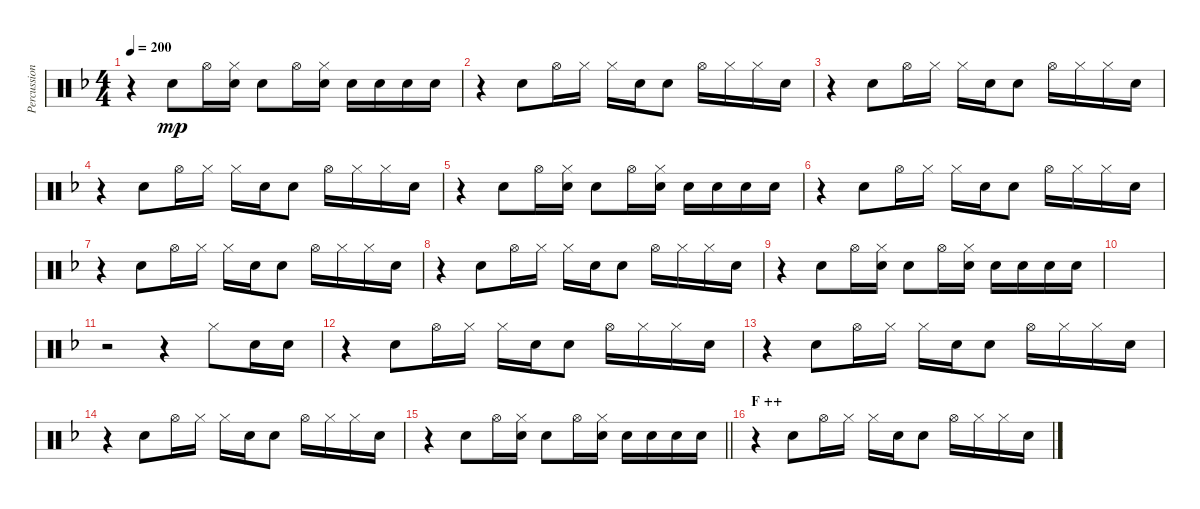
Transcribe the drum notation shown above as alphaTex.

\track ("Percussion (Tainaka Ritsu)" "Percussion") {instrument percussion}
\staff {score}
\articulation defaults
\ts (4 4)
\tempo 200
\clef neutral
\ks f
r.4{dy mp} "Electric Snare (hit)".8 "Hi-Hat (open)".16 ("Hi-Hat (closed)" "Electric Snare (hit)").16 "Electric Snare (hit)".8 "Hi-Hat (open)".16 ("Hi-Hat (closed)" "Electric Snare (hit)").16 "Electric Snare (hit)".16 "Electric Snare (hit)".16 "Electric Snare (hit)".16 "Electric Snare (hit)".16 |
r.4 "Electric Snare (hit)".8 "Hi-Hat (open)".16 "Hi-Hat (closed)".16 "Hi-Hat (closed)".16 "Electric Snare (hit)".16 "Electric Snare (hit)".8 "Hi-Hat (open)".16 "Hi-Hat (closed)".16 "Hi-Hat (closed)".16 "Electric Snare (hit)".16 |
r.4 "Electric Snare (hit)".8 "Hi-Hat (open)".16 "Hi-Hat (closed)".16 "Hi-Hat (closed)".16 "Electric Snare (hit)".16 "Electric Snare (hit)".8 "Hi-Hat (open)".16 "Hi-Hat (closed)".16 "Hi-Hat (closed)".16 "Electric Snare (hit)".16 |
r.4 "Electric Snare (hit)".8 "Hi-Hat (open)".16 "Hi-Hat (closed)".16 "Hi-Hat (closed)".16 "Electric Snare (hit)".16 "Electric Snare (hit)".8 "Hi-Hat (open)".16 "Hi-Hat (closed)".16 "Hi-Hat (closed)".16 "Electric Snare (hit)".16 |
r.4 "Electric Snare (hit)".8 "Hi-Hat (open)".16 ("Hi-Hat (closed)" "Electric Snare (hit)").16 "Electric Snare (hit)".8 "Hi-Hat (open)".16 ("Hi-Hat (closed)" "Electric Snare (hit)").16 "Electric Snare (hit)".16 "Electric Snare (hit)".16 "Electric Snare (hit)".16 "Electric Snare (hit)".16 |
r.4 "Electric Snare (hit)".8 "Hi-Hat (open)".16 "Hi-Hat (closed)".16 "Hi-Hat (closed)".16 "Electric Snare (hit)".16 "Electric Snare (hit)".8 "Hi-Hat (open)".16 "Hi-Hat (closed)".16 "Hi-Hat (closed)".16 "Electric Snare (hit)".16 |
r.4 "Electric Snare (hit)".8 "Hi-Hat (open)".16 "Hi-Hat (closed)".16 "Hi-Hat (closed)".16 "Electric Snare (hit)".16 "Electric Snare (hit)".8 "Hi-Hat (open)".16 "Hi-Hat (closed)".16 "Hi-Hat (closed)".16 "Electric Snare (hit)".16 |
r.4 "Electric Snare (hit)".8 "Hi-Hat (open)".16 "Hi-Hat (closed)".16 "Hi-Hat (closed)".16 "Electric Snare (hit)".16 "Electric Snare (hit)".8 "Hi-Hat (open)".16 "Hi-Hat (closed)".16 "Hi-Hat (closed)".16 "Electric Snare (hit)".16 |
r.4 "Electric Snare (hit)".8 "Hi-Hat (open)".16 ("Hi-Hat (closed)" "Electric Snare (hit)").16 "Electric Snare (hit)".8 "Hi-Hat (open)".16 ("Hi-Hat (closed)" "Electric Snare (hit)").16 "Electric Snare (hit)".16 "Electric Snare (hit)".16 "Electric Snare (hit)".16 "Electric Snare (hit)".16 |
|
r.2 r.4 "Hi-Hat (closed)".8 "Electric Snare (hit)".16 "Electric Snare (hit)".16 |
r.4 "Electric Snare (hit)".8 "Hi-Hat (open)".16 "Hi-Hat (closed)".16 "Hi-Hat (closed)".16 "Electric Snare (hit)".16 "Electric Snare (hit)".8 "Hi-Hat (open)".16 "Hi-Hat (closed)".16 "Hi-Hat (closed)".16 "Electric Snare (hit)".16 |
r.4 "Electric Snare (hit)".8 "Hi-Hat (open)".16 "Hi-Hat (closed)".16 "Hi-Hat (closed)".16 "Electric Snare (hit)".16 "Electric Snare (hit)".8 "Hi-Hat (open)".16 "Hi-Hat (closed)".16 "Hi-Hat (closed)".16 "Electric Snare (hit)".16 |
r.4 "Electric Snare (hit)".8 "Hi-Hat (open)".16 "Hi-Hat (closed)".16 "Hi-Hat (closed)".16 "Electric Snare (hit)".16 "Electric Snare (hit)".8 "Hi-Hat (open)".16 "Hi-Hat (closed)".16 "Hi-Hat (closed)".16 "Electric Snare (hit)".16 |
\barLineRight lightlight
r.4 "Electric Snare (hit)".8 "Hi-Hat (open)".16 ("Hi-Hat (closed)" "Electric Snare (hit)").16 "Electric Snare (hit)".8 "Hi-Hat (open)".16 ("Hi-Hat (closed)" "Electric Snare (hit)").16 "Electric Snare (hit)".16 "Electric Snare (hit)".16 "Electric Snare (hit)".16 "Electric Snare (hit)".16 |
\section ("" "F ++")
r.4 "Electric Snare (hit)".8 "Hi-Hat (open)".16 "Hi-Hat (closed)".16 "Hi-Hat (closed)".16 "Electric Snare (hit)".16 "Electric Snare (hit)".8 "Hi-Hat (open)".16 "Hi-Hat (closed)".16 "Hi-Hat (closed)".16 "Electric Snare (hit)".16
